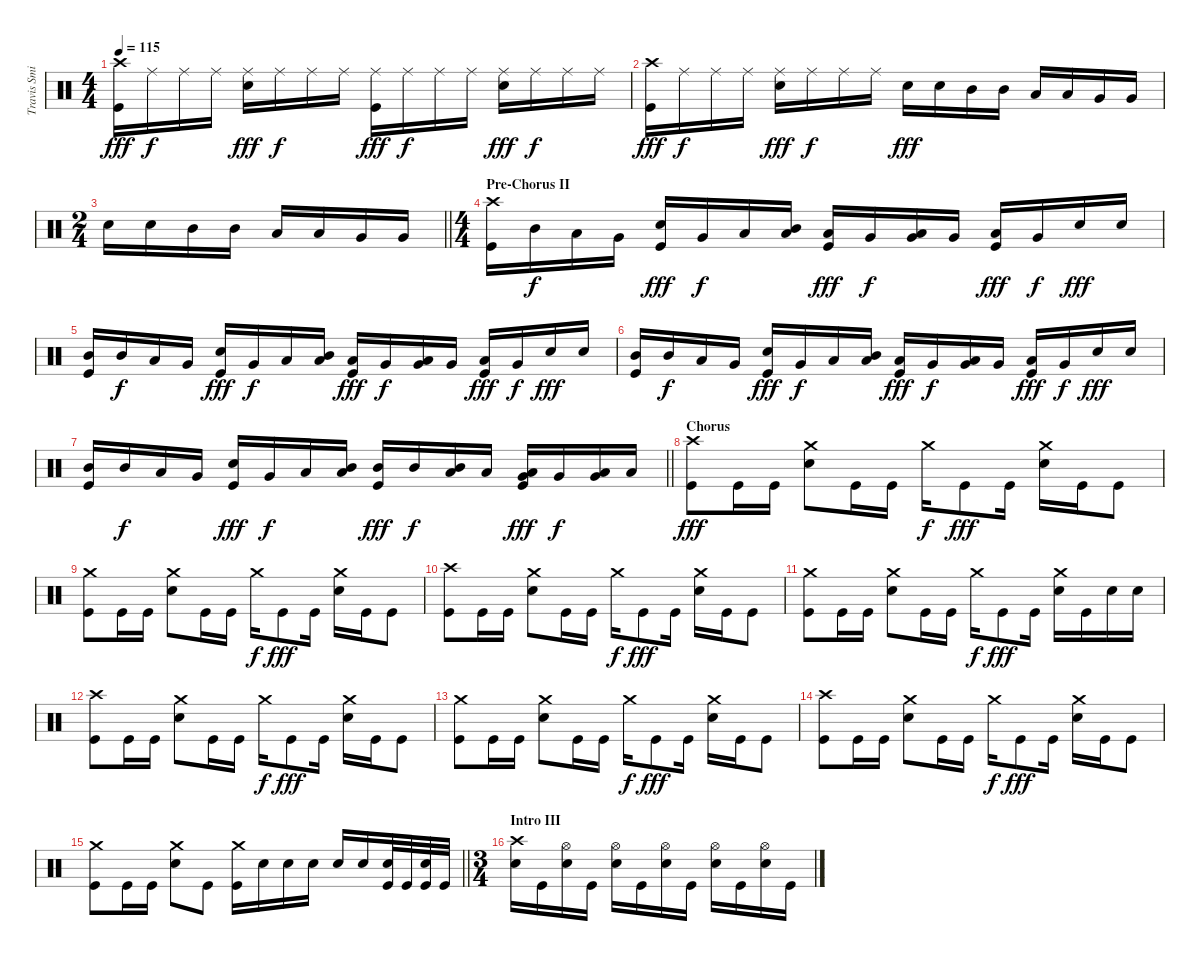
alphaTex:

\track ("Travis Smith" "Travis Smi") {instrument percussion}
\staff {score}
\articulation defaults
\ts (4 4)
\tempo 115
\clef neutral
\ks c
("Crash high (hit)" "Kick (hit)").16{dy fff} "Ride (middle)".16{dy f} "Ride (middle)".16 "Ride (middle)".16 ("Ride (middle)" "Snare (hit) 2").16{dy fff} "Ride (middle)".16{dy f} "Ride (middle)".16 "Ride (middle)".16 ("Ride (middle)" "Kick (hit)").16{dy fff} "Ride (middle)".16{dy f} "Ride (middle)".16 "Ride (middle)".16 ("Ride (middle)" "Snare (hit) 2").16{dy fff} "Ride (middle)".16{dy f} "Ride (middle)".16 "Ride (middle)".16 |
("Crash high (hit)" "Kick (hit)").16{dy fff} "Ride (middle)".16{dy f} "Ride (middle)".16 "Ride (middle)".16 ("Ride (middle)" "Snare (hit) 2").16{dy fff} "Ride (middle)".16{dy f} "Ride (middle)".16 "Ride (middle)".16 "Snare (hit) 2".16{dy fff} "Snare (hit) 2".16 "Mid Tom (hit)".16 "Mid Tom (hit)".16 "Low Tom (hit)".16 "Low Tom (hit)".16 "Very Low Tom (hit)".16 "Very Low Tom (hit)".16 |
\ts (2 4)
\barLineRight lightlight "Snare (hit) 2".16 "Snare (hit) 2".16 "Mid Tom (hit)".16 "Mid Tom (hit)".16 "Low Tom (hit)".16 "Low Tom (hit)".16 "Very Low Tom (hit)".16 "Very Low Tom (hit)".16
|
\ts (4 4)
\section ("" "Pre-Chorus II")
("Crash high (hit)" "Kick (hit)").16 "Mid Tom (hit)".16{dy f} "Low Tom (hit)".16 "Very Low Tom (hit)".16 ("Snare (hit) 2" "Kick (hit)").16{dy fff} "Very Low Tom (hit)".16{dy f} "Low Tom (hit)".16 ("Mid Tom (hit)" "Low Tom (hit)").16 ("Low Tom (hit)" "Kick (hit)").16{dy fff} "Very Low Tom (hit)".16{dy f} ("Low Tom (hit)" "Very Low Tom (hit)").16 "Very Low Tom (hit)".16 ("Low Tom (hit)" "Kick (hit)").16{dy fff} "Very Low Tom (hit)".16{dy f} "Snare (hit) 2".16{dy fff} "Snare (hit) 2".16 |
("Mid Tom (hit)" "Kick (hit)").16 "Mid Tom (hit)".16{dy f} "Low Tom (hit)".16 "Very Low Tom (hit)".16 ("Snare (hit) 2" "Kick (hit)").16{dy fff} "Very Low Tom (hit)".16{dy f} "Low Tom (hit)".16 ("Mid Tom (hit)" "Low Tom (hit)").16 ("Low Tom (hit)" "Kick (hit)").16{dy fff} "Very Low Tom (hit)".16{dy f} ("Low Tom (hit)" "Very Low Tom (hit)").16 "Very Low Tom (hit)".16 ("Low Tom (hit)" "Kick (hit)").16{dy fff} "Very Low Tom (hit)".16{dy f} "Snare (hit) 2".16{dy fff} "Snare (hit) 2".16 |
("Mid Tom (hit)" "Kick (hit)").16 "Mid Tom (hit)".16{dy f} "Low Tom (hit)".16 "Very Low Tom (hit)".16 ("Snare (hit) 2" "Kick (hit)").16{dy fff} "Very Low Tom (hit)".16{dy f} "Low Tom (hit)".16 ("Mid Tom (hit)" "Low Tom (hit)").16 ("Low Tom (hit)" "Kick (hit)").16{dy fff} "Very Low Tom (hit)".16{dy f} ("Low Tom (hit)" "Very Low Tom (hit)").16 "Very Low Tom (hit)".16 ("Low Tom (hit)" "Kick (hit)").16{dy fff} "Very Low Tom (hit)".16{dy f} "Snare (hit) 2".16{dy fff} "Snare (hit) 2".16 |
\barLineRight lightlight
("Mid Tom (hit)" "Kick (hit)").16 "Mid Tom (hit)".16{dy f} "Low Tom (hit)".16 "Very Low Tom (hit)".16 ("Snare (hit) 2" "Kick (hit)").16{dy fff} "Very Low Tom (hit)".16{dy f} "Low Tom (hit)".16 ("Mid Tom (hit)" "Low Tom (hit)").16 ("Mid Tom (hit)" "Kick (hit)").16{dy fff} "Mid Tom (hit)".16{dy f} ("Mid Tom (hit)" "Low Tom (hit)").16 "Low Tom (hit)".16 ("Low Tom (hit)" "Very Low Tom (hit)" "Kick (hit)").16{dy fff} "Very Low Tom (hit)".16{dy f} ("Very Low Tom (hit)" "Low Floor Tom (hit)").16 "Low Floor Tom (hit)".16 |
\section ("" "Chorus")
("Crash high (hit)" "Kick (hit)").8{dy fff} "Kick (hit)".16 "Kick (hit)".16 ("Crash medium (hit)" "Snare (hit) 2").8 "Kick (hit)".16 "Kick (hit)".16 "Crash medium (hit)".16{dy f} "Kick (hit)".8{dy fff} "Kick (hit)".16 ("Crash medium (hit)" "Snare (hit) 2").16 "Kick (hit)".16 "Kick (hit)".8 |
("Crash medium (hit)" "Kick (hit)").8 "Kick (hit)".16 "Kick (hit)".16 ("Crash medium (hit)" "Snare (hit) 2").8 "Kick (hit)".16 "Kick (hit)".16 "Crash medium (hit)".16{dy f} "Kick (hit)".8{dy fff} "Kick (hit)".16 ("Crash medium (hit)" "Snare (hit) 2").16 "Kick (hit)".16 "Kick (hit)".8 |
("Crash high (hit)" "Kick (hit)").8 "Kick (hit)".16 "Kick (hit)".16 ("Crash medium (hit)" "Snare (hit) 2").8 "Kick (hit)".16 "Kick (hit)".16 "Crash medium (hit)".16{dy f} "Kick (hit)".8{dy fff} "Kick (hit)".16 ("Crash medium (hit)" "Snare (hit) 2").16 "Kick (hit)".16 "Kick (hit)".8 |
("Crash medium (hit)" "Kick (hit)").8 "Kick (hit)".16 "Kick (hit)".16 ("Crash medium (hit)" "Snare (hit) 2").8 "Kick (hit)".16 "Kick (hit)".16 "Crash medium (hit)".16{dy f} "Kick (hit)".8{dy fff} "Kick (hit)".16 ("Crash medium (hit)" "Snare (hit) 2").16 "Kick (hit)".16 "Snare (hit) 2".16 "Snare (hit) 2".16 |
("Crash high (hit)" "Kick (hit)").8 "Kick (hit)".16 "Kick (hit)".16 ("Crash medium (hit)" "Snare (hit) 2").8 "Kick (hit)".16 "Kick (hit)".16 "Crash medium (hit)".16{dy f} "Kick (hit)".8{dy fff} "Kick (hit)".16 ("Crash medium (hit)" "Snare (hit) 2").16 "Kick (hit)".16 "Kick (hit)".8 |
("Crash medium (hit)" "Kick (hit)").8 "Kick (hit)".16 "Kick (hit)".16 ("Crash medium (hit)" "Snare (hit) 2").8 "Kick (hit)".16 "Kick (hit)".16 "Crash medium (hit)".16{dy f} "Kick (hit)".8{dy fff} "Kick (hit)".16 ("Crash medium (hit)" "Snare (hit) 2").16 "Kick (hit)".16 "Kick (hit)".8 |
("Crash high (hit)" "Kick (hit)").8 "Kick (hit)".16 "Kick (hit)".16 ("Crash medium (hit)" "Snare (hit) 2").8 "Kick (hit)".16 "Kick (hit)".16 "Crash medium (hit)".16{dy f} "Kick (hit)".8{dy fff} "Kick (hit)".16 ("Crash medium (hit)" "Snare (hit) 2").16 "Kick (hit)".16 "Kick (hit)".8 |
\barLineRight lightlight
("Crash medium (hit)" "Kick (hit)").8 "Kick (hit)".16 "Kick (hit)".16 ("Crash medium (hit)" "Snare (hit) 2").8 "Kick (hit)".8 ("Crash medium (hit)" "Kick (hit)").16 "Snare (hit) 2".16 "Snare (hit) 2".16 "Snare (hit) 2".16 "Snare (hit) 2".16 "Snare (hit) 2".16 ("Snare (hit) 2" "Kick (hit)").32 "Kick (hit)".32 ("Snare (hit) 2" "Kick (hit)").32 "Kick (hit)".32 |
\ts (3 4)
\section ("" "Intro III")
("Crash high (hit)" "Snare (hit) 2").16 "Kick (hit)".16 ("Hi-Hat (open)" "Snare (hit) 2").16 "Kick (hit)".16 ("Hi-Hat (open)" "Snare (hit) 2").16 "Kick (hit)".16 ("Hi-Hat (open)" "Snare (hit) 2").16 "Kick (hit)".16 ("Hi-Hat (open)" "Snare (hit) 2").16 "Kick (hit)".16 ("Hi-Hat (open)" "Snare (hit) 2").16 "Kick (hit)".16
